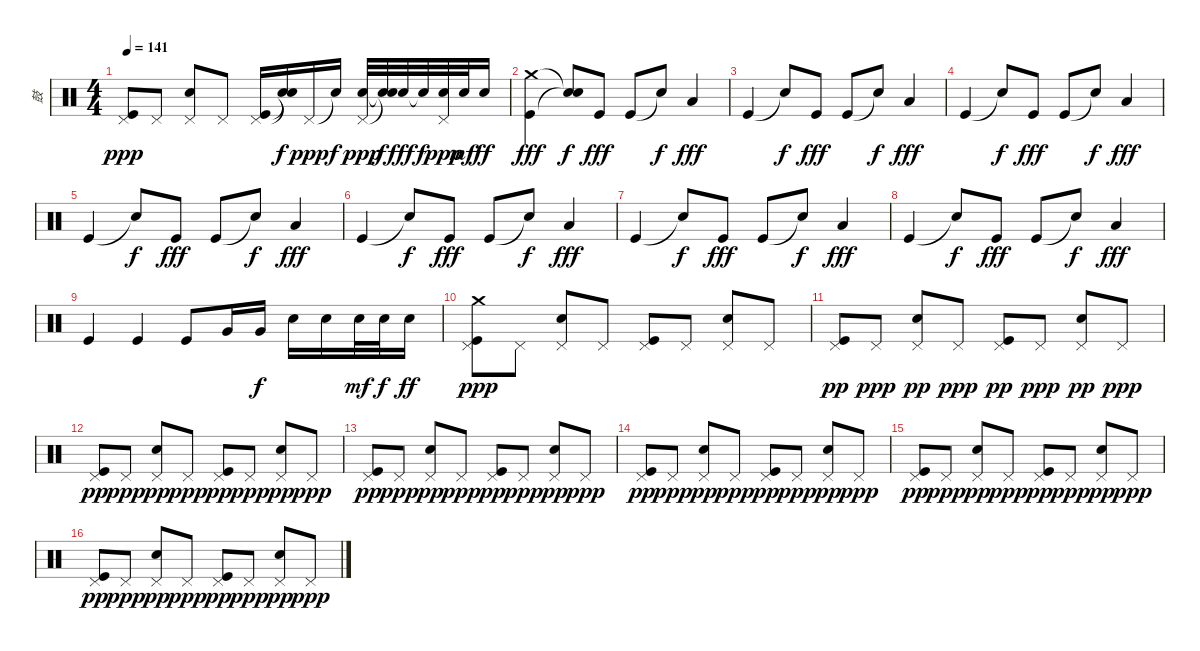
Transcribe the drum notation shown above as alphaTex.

\track ("鼓" "鼓") {instrument percussion}
\staff {score}
\articulation defaults
\ts (4 4)
\tempo 141
\clef neutral
\ks c
("Kick (hit)" "Pedal Hi-Hat (hit)").8{dy ppp} "Pedal Hi-Hat (hit)".8 ("Snare (hit) 2" "Pedal Hi-Hat (hit)").8 "Pedal Hi-Hat (hit)".8 ("Kick (hit)" "Pedal Hi-Hat (hit)").16 ("Snare (hit)"{t} "Snare (hit)"{t}).16{dy f} "Pedal Hi-Hat (hit)".16{dy ppp} "Snare (hit)"{t}.16{dy f} ("Snare (hit) 2" "Pedal Hi-Hat (hit)").32{dy ppp} ("Snare (hit)"{t} "Snare (hit)"{t}).32{dy f} "Snare (hit) 2".32{dy fff} "Snare (hit)"{t}.32{dy f} ("Snare (hit) 2" "Pedal Hi-Hat (hit)").32{dy ppp} "Snare (hit) 2".32{dy mf} "Snare (hit) 2".16{dy ff} |
("Kick (hit)" "Crash medium (hit)").4{dy fff} ("Snare (hit)"{t} "Snare (hit)"{t}).8{dy f} "Kick (hit)".8{dy fff} "Kick (hit)".8 "Snare (hit)"{t}.8{dy f} "Low Floor Tom (hit)".4{dy fff} |
"Kick (hit)".4 "Snare (hit)"{t}.8{dy f} "Kick (hit)".8{dy fff} "Kick (hit)".8 "Snare (hit)"{t}.8{dy f} "Low Floor Tom (hit)".4{dy fff} |
"Kick (hit)".4 "Snare (hit)"{t}.8{dy f} "Kick (hit)".8{dy fff} "Kick (hit)".8 "Snare (hit)"{t}.8{dy f} "Low Floor Tom (hit)".4{dy fff} |
"Kick (hit)".4 "Snare (hit)"{t}.8{dy f} "Kick (hit)".8{dy fff} "Kick (hit)".8 "Snare (hit)"{t}.8{dy f} "Low Floor Tom (hit)".4{dy fff} |
"Kick (hit)".4 "Snare (hit)"{t}.8{dy f} "Kick (hit)".8{dy fff} "Kick (hit)".8 "Snare (hit)"{t}.8{dy f} "Low Floor Tom (hit)".4{dy fff} |
"Kick (hit)".4 "Snare (hit)"{t}.8{dy f} "Kick (hit)".8{dy fff} "Kick (hit)".8 "Snare (hit)"{t}.8{dy f} "Low Floor Tom (hit)".4{dy fff} |
"Kick (hit)".4 "Snare (hit)"{t}.8{dy f} "Kick (hit)".8{dy fff} "Kick (hit)".8 "Snare (hit)"{t}.8{dy f} "Low Floor Tom (hit)".4{dy fff} |
"Kick (hit)".4 "Kick (hit)".4 "Kick (hit)".8 "Very Low Tom (hit)".16 "Very Low Tom (hit)".16{dy f} "Snare (hit) 2".16 "Snare (hit) 2".16 "Snare (hit) 2".32{dy mf} "Snare (hit) 2".32{dy f} "Snare (hit) 2".16{dy ff} |
("Crash medium (hit)" "Kick (hit)" "Pedal Hi-Hat (hit)").8{dy ppp} "Pedal Hi-Hat (hit)".8 ("Snare (hit) 2" "Pedal Hi-Hat (hit)").8 "Pedal Hi-Hat (hit)".8 ("Kick (hit)" "Pedal Hi-Hat (hit)").8 "Pedal Hi-Hat (hit)".8 ("Snare (hit) 2" "Pedal Hi-Hat (hit)").8 "Pedal Hi-Hat (hit)".8 |
("Kick (hit)" "Pedal Hi-Hat (hit)").8{dy pp} "Pedal Hi-Hat (hit)".8{dy ppp} ("Snare (hit) 2" "Pedal Hi-Hat (hit)").8{dy pp} "Pedal Hi-Hat (hit)".8{dy ppp} ("Kick (hit)" "Pedal Hi-Hat (hit)").8{dy pp} "Pedal Hi-Hat (hit)".8{dy ppp} ("Snare (hit) 2" "Pedal Hi-Hat (hit)").8{dy pp} "Pedal Hi-Hat (hit)".8{dy ppp} |
("Kick (hit)" "Pedal Hi-Hat (hit)").8{dy pp} "Pedal Hi-Hat (hit)".8{dy ppp} ("Snare (hit) 2" "Pedal Hi-Hat (hit)").8{dy pp} "Pedal Hi-Hat (hit)".8{dy ppp} ("Kick (hit)" "Pedal Hi-Hat (hit)").8{dy pp} "Pedal Hi-Hat (hit)".8{dy ppp} ("Snare (hit) 2" "Pedal Hi-Hat (hit)").8{dy pp} "Pedal Hi-Hat (hit)".8{dy ppp} |
("Kick (hit)" "Pedal Hi-Hat (hit)").8{dy pp} "Pedal Hi-Hat (hit)".8{dy ppp} ("Snare (hit) 2" "Pedal Hi-Hat (hit)").8{dy pp} "Pedal Hi-Hat (hit)".8{dy ppp} ("Kick (hit)" "Pedal Hi-Hat (hit)").8{dy pp} "Pedal Hi-Hat (hit)".8{dy ppp} ("Snare (hit) 2" "Pedal Hi-Hat (hit)").8{dy pp} "Pedal Hi-Hat (hit)".8{dy ppp} |
("Kick (hit)" "Pedal Hi-Hat (hit)").8{dy pp} "Pedal Hi-Hat (hit)".8{dy ppp} ("Snare (hit) 2" "Pedal Hi-Hat (hit)").8{dy pp} "Pedal Hi-Hat (hit)".8{dy ppp} ("Kick (hit)" "Pedal Hi-Hat (hit)").8{dy pp} "Pedal Hi-Hat (hit)".8{dy ppp} ("Snare (hit) 2" "Pedal Hi-Hat (hit)").8{dy pp} "Pedal Hi-Hat (hit)".8{dy ppp} |
("Kick (hit)" "Pedal Hi-Hat (hit)").8{dy pp} "Pedal Hi-Hat (hit)".8{dy ppp} ("Snare (hit) 2" "Pedal Hi-Hat (hit)").8{dy pp} "Pedal Hi-Hat (hit)".8{dy ppp} ("Kick (hit)" "Pedal Hi-Hat (hit)").8{dy pp} "Pedal Hi-Hat (hit)".8{dy ppp} ("Snare (hit) 2" "Pedal Hi-Hat (hit)").8{dy pp} "Pedal Hi-Hat (hit)".8{dy ppp} |
("Kick (hit)" "Pedal Hi-Hat (hit)").8{dy pp} "Pedal Hi-Hat (hit)".8{dy ppp} ("Snare (hit) 2" "Pedal Hi-Hat (hit)").8{dy pp} "Pedal Hi-Hat (hit)".8{dy ppp} ("Kick (hit)" "Pedal Hi-Hat (hit)").8{dy pp} "Pedal Hi-Hat (hit)".8{dy ppp} ("Snare (hit) 2" "Pedal Hi-Hat (hit)").8{dy pp} "Pedal Hi-Hat (hit)".8{dy ppp}
